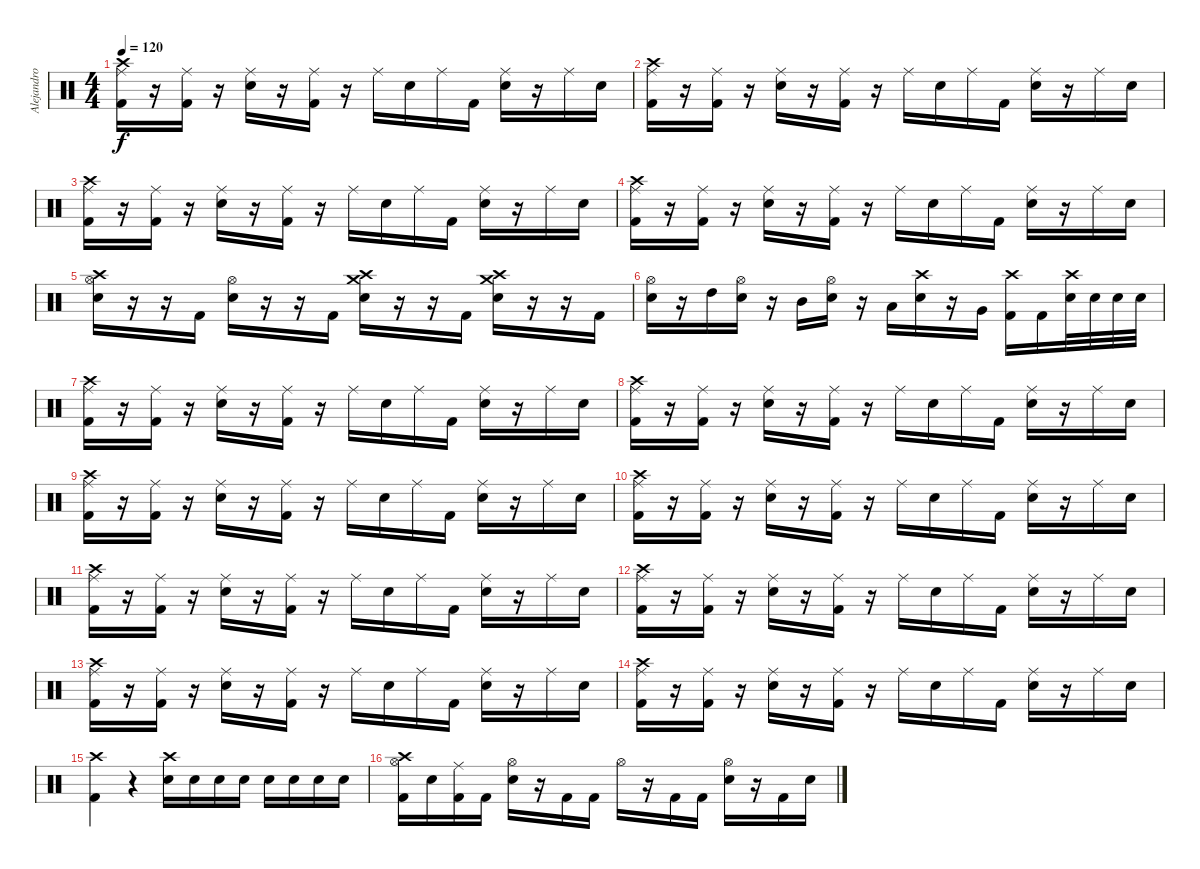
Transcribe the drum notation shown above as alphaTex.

\track ("Alejandro" "Alejandro") {instrument percussion}
\staff {score}
\articulation defaults
\ts (4 4)
\tempo 120
\clef neutral
\ks c
("Crash high (hit)" "Ride (middle)" "Kick (hit) 2").16{dy f} r.16 ("Ride (middle)" "Kick (hit) 2").16 r.16 ("Ride (middle)" "Electric Snare (hit)").16 r.16 ("Ride (middle)" "Kick (hit) 2").16 r.16 "Ride (middle)".16 "Electric Snare (hit)".16 "Ride (middle)".16 "Kick (hit) 2".16 ("Ride (middle)" "Electric Snare (hit)").16 r.16 "Ride (middle)".16 "Snare (hit)".16 |
("Crash high (hit)" "Ride (middle)" "Kick (hit) 2").16 r.16 ("Ride (middle)" "Kick (hit) 2").16 r.16 ("Ride (middle)" "Electric Snare (hit)").16 r.16 ("Ride (middle)" "Kick (hit) 2").16 r.16 "Ride (middle)".16 "Electric Snare (hit)".16 "Ride (middle)".16 "Kick (hit) 2".16 ("Ride (middle)" "Electric Snare (hit)").16 r.16 "Ride (middle)".16 "Snare (hit)".16 |
("Crash high (hit)" "Ride (middle)" "Kick (hit) 2").16 r.16 ("Ride (middle)" "Kick (hit) 2").16 r.16 ("Ride (middle)" "Electric Snare (hit)").16 r.16 ("Ride (middle)" "Kick (hit) 2").16 r.16 "Ride (middle)".16 "Electric Snare (hit)".16 "Ride (middle)".16 "Kick (hit) 2".16 ("Ride (middle)" "Electric Snare (hit)").16 r.16 "Ride (middle)".16 "Snare (hit)".16 |
("Crash high (hit)" "Ride (middle)" "Kick (hit) 2").16 r.16 ("Ride (middle)" "Kick (hit) 2").16 r.16 ("Ride (middle)" "Electric Snare (hit)").16 r.16 ("Ride (middle)" "Kick (hit) 2").16 r.16 "Ride (middle)".16 "Electric Snare (hit)".16 "Ride (middle)".16 "Kick (hit) 2".16 ("Ride (middle)" "Electric Snare (hit)").16 r.16 "Ride (middle)".16 "Snare (hit)".16 |
("Crash high (hit)" "Hi-Hat (open)" "Electric Snare (hit)").16 r.16 r.16 "Kick (hit) 2".16 ("Hi-Hat (open)" "Electric Snare (hit)").16 r.16 r.16 "Kick (hit) 2".16 ("Crash medium (hit)" "Crash high (hit)" "Electric Snare (hit)").16 r.16 r.16 "Kick (hit) 2".16 ("Crash medium (hit)" "Crash high (hit)" "Electric Snare (hit)").16 r.16 r.16 "Kick (hit) 2".16 |
("Hi-Hat (open)" "Electric Snare (hit)").16 r.16 "High Tom (hit)".16 ("Hi-Hat (open)" "Electric Snare (hit)").16 r.16 "Mid Tom (hit)".16 ("Hi-Hat (open)" "Electric Snare (hit)").16 r.16 "Low Tom (hit)".16 ("Crash high (hit)" "Electric Snare (hit)").16 r.16 "Very Low Tom (hit)".16 ("Crash high (hit)" "Kick (hit) 2").16 "Kick (hit) 2".16 ("Crash high (hit)" "Electric Snare (hit)").32 "Electric Snare (hit)".32 "Electric Snare (hit)".32 "Electric Snare (hit)".32 |
("Crash high (hit)" "Ride (middle)" "Kick (hit) 2").16 r.16 ("Ride (middle)" "Kick (hit) 2").16 r.16 ("Ride (middle)" "Electric Snare (hit)").16 r.16 ("Ride (middle)" "Kick (hit) 2").16 r.16 "Ride (middle)".16 "Electric Snare (hit)".16 "Ride (middle)".16 "Kick (hit) 2".16 ("Ride (middle)" "Electric Snare (hit)").16 r.16 "Ride (middle)".16 "Snare (hit)".16 |
("Crash high (hit)" "Ride (middle)" "Kick (hit) 2").16 r.16 ("Ride (middle)" "Kick (hit) 2").16 r.16 ("Ride (middle)" "Electric Snare (hit)").16 r.16 ("Ride (middle)" "Kick (hit) 2").16 r.16 "Ride (middle)".16 "Electric Snare (hit)".16 "Ride (middle)".16 "Kick (hit) 2".16 ("Ride (middle)" "Electric Snare (hit)").16 r.16 "Ride (middle)".16 "Snare (hit)".16 |
("Crash high (hit)" "Ride (middle)" "Kick (hit) 2").16 r.16 ("Ride (middle)" "Kick (hit) 2").16 r.16 ("Ride (middle)" "Electric Snare (hit)").16 r.16 ("Ride (middle)" "Kick (hit) 2").16 r.16 "Ride (middle)".16 "Electric Snare (hit)".16 "Ride (middle)".16 "Kick (hit) 2".16 ("Ride (middle)" "Electric Snare (hit)").16 r.16 "Ride (middle)".16 "Snare (hit)".16 |
("Crash high (hit)" "Ride (middle)" "Kick (hit) 2").16 r.16 ("Ride (middle)" "Kick (hit) 2").16 r.16 ("Ride (middle)" "Electric Snare (hit)").16 r.16 ("Ride (middle)" "Kick (hit) 2").16 r.16 "Ride (middle)".16 "Electric Snare (hit)".16 "Ride (middle)".16 "Kick (hit) 2".16 ("Ride (middle)" "Electric Snare (hit)").16 r.16 "Ride (middle)".16 "Snare (hit)".16 |
("Crash high (hit)" "Ride (middle)" "Kick (hit) 2").16 r.16 ("Ride (middle)" "Kick (hit) 2").16 r.16 ("Ride (middle)" "Electric Snare (hit)").16 r.16 ("Ride (middle)" "Kick (hit) 2").16 r.16 "Ride (middle)".16 "Electric Snare (hit)".16 "Ride (middle)".16 "Kick (hit) 2".16 ("Ride (middle)" "Electric Snare (hit)").16 r.16 "Ride (middle)".16 "Snare (hit)".16 |
("Crash high (hit)" "Ride (middle)" "Kick (hit) 2").16 r.16 ("Ride (middle)" "Kick (hit) 2").16 r.16 ("Ride (middle)" "Electric Snare (hit)").16 r.16 ("Ride (middle)" "Kick (hit) 2").16 r.16 "Ride (middle)".16 "Electric Snare (hit)".16 "Ride (middle)".16 "Kick (hit) 2".16 ("Ride (middle)" "Electric Snare (hit)").16 r.16 "Ride (middle)".16 "Snare (hit)".16 |
("Crash high (hit)" "Ride (middle)" "Kick (hit) 2").16 r.16 ("Ride (middle)" "Kick (hit) 2").16 r.16 ("Ride (middle)" "Electric Snare (hit)").16 r.16 ("Ride (middle)" "Kick (hit) 2").16 r.16 "Ride (middle)".16 "Electric Snare (hit)".16 "Ride (middle)".16 "Kick (hit) 2".16 ("Ride (middle)" "Electric Snare (hit)").16 r.16 "Ride (middle)".16 "Snare (hit)".16 |
("Crash high (hit)" "Ride (middle)" "Kick (hit) 2").16 r.16 ("Ride (middle)" "Kick (hit) 2").16 r.16 ("Ride (middle)" "Electric Snare (hit)").16 r.16 ("Ride (middle)" "Kick (hit) 2").16 r.16 "Ride (middle)".16 "Electric Snare (hit)".16 "Ride (middle)".16 "Kick (hit) 2".16 ("Ride (middle)" "Electric Snare (hit)").16 r.16 "Ride (middle)".16 "Snare (hit)".16 |
("Crash high (hit)" "Kick (hit) 2").4 r.4 ("Crash high (hit)" "Electric Snare (hit)").16 "Electric Snare (hit)".16 "Electric Snare (hit)".16 "Electric Snare (hit)".16 "Electric Snare (hit)".16 "Electric Snare (hit)".16 "Electric Snare (hit)".16 "Electric Snare (hit)".16 |
("Crash high (hit)" "Hi-Hat (open)" "Kick (hit) 2").16 "Electric Snare (hit)".16 ("Ride (middle)" "Kick (hit) 2").16 "Kick (hit) 2".16 ("Hi-Hat (open)" "Electric Snare (hit)").16 r.16 "Kick (hit) 2".16 "Kick (hit) 2".16 "Hi-Hat (open)".16 r.16 "Kick (hit) 2".16 "Kick (hit) 2".16 ("Hi-Hat (open)" "Electric Snare (hit)").16 r.16 "Kick (hit) 2".16 "Electric Snare (hit)".16
